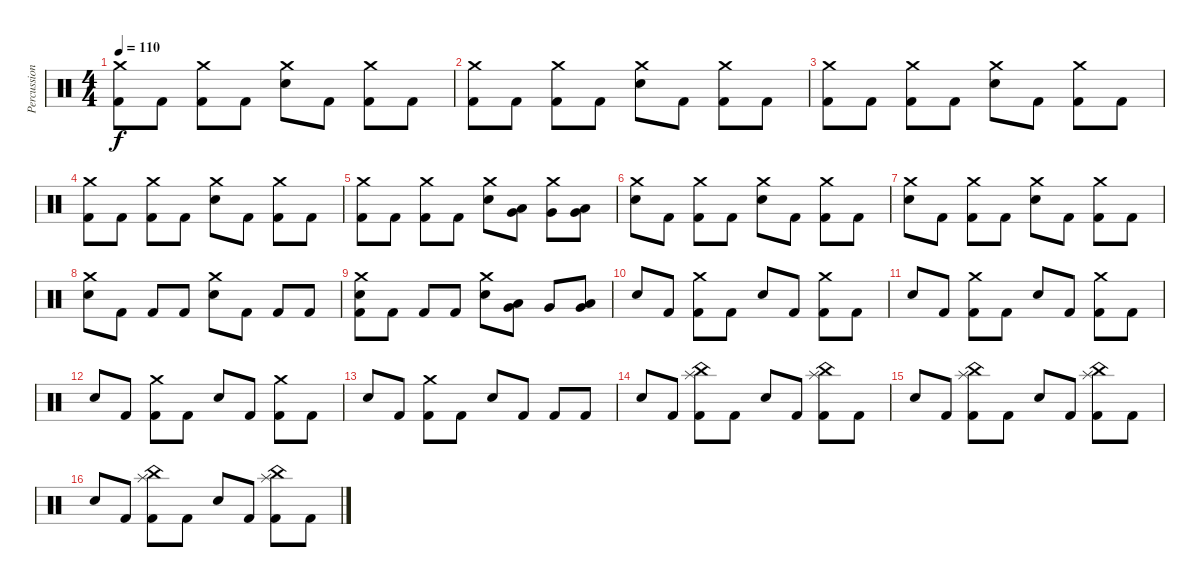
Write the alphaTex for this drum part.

\track ("Percussions" "Percussion") {instrument percussion}
\staff {score}
\articulation defaults
\ts (4 4)
\tempo 110
\clef neutral
\ks c
("Crash medium (hit)" "Kick (hit) 2").8{dy f} "Kick (hit) 2".8 ("Crash medium (hit)" "Kick (hit) 2").8 "Kick (hit) 2".8 ("Crash medium (hit)" "Snare (hit) 2").8 "Kick (hit) 2".8 ("Crash medium (hit)" "Kick (hit) 2").8 "Kick (hit) 2".8 |
("Crash medium (hit)" "Kick (hit) 2").8 "Kick (hit) 2".8 ("Crash medium (hit)" "Kick (hit) 2").8 "Kick (hit) 2".8 ("Crash medium (hit)" "Snare (hit) 2").8 "Kick (hit) 2".8 ("Crash medium (hit)" "Kick (hit) 2").8 "Kick (hit) 2".8 |
("Crash medium (hit)" "Kick (hit) 2").8 "Kick (hit) 2".8 ("Crash medium (hit)" "Kick (hit) 2").8 "Kick (hit) 2".8 ("Crash medium (hit)" "Snare (hit) 2").8 "Kick (hit) 2".8 ("Crash medium (hit)" "Kick (hit) 2").8 "Kick (hit) 2".8 |
("Crash medium (hit)" "Kick (hit) 2").8 "Kick (hit) 2".8 ("Crash medium (hit)" "Kick (hit) 2").8 "Kick (hit) 2".8 ("Crash medium (hit)" "Snare (hit) 2").8 "Kick (hit) 2".8 ("Crash medium (hit)" "Kick (hit) 2").8 "Kick (hit) 2".8 |
("Crash medium (hit)" "Kick (hit) 2").8 "Kick (hit) 2".8 ("Crash medium (hit)" "Kick (hit) 2").8 "Kick (hit) 2".8 ("Crash medium (hit)" "Snare (hit) 2").8 ("Low Tom (hit)" "Very Low Tom (hit)").8 ("Crash medium (hit)" "Very Low Tom (hit)").8 ("Very Low Tom (hit)" "Low Floor Tom (hit)").8 |
("Crash medium (hit)" "Snare (hit) 2").8 "Kick (hit) 2".8 ("Crash medium (hit)" "Kick (hit) 2").8 "Kick (hit) 2".8 ("Crash medium (hit)" "Snare (hit) 2").8 "Kick (hit) 2".8 ("Crash medium (hit)" "Kick (hit) 2").8 "Kick (hit) 2".8 |
("Crash medium (hit)" "Snare (hit) 2").8 "Kick (hit) 2".8 ("Crash medium (hit)" "Kick (hit) 2").8 "Kick (hit) 2".8 ("Crash medium (hit)" "Snare (hit) 2").8 "Kick (hit) 2".8 ("Crash medium (hit)" "Kick (hit) 2").8 "Kick (hit) 2".8 |
("Crash medium (hit)" "Snare (hit) 2").8 "Kick (hit) 2".8 "Kick (hit) 2".8 "Kick (hit) 2".8 ("Crash medium (hit)" "Snare (hit) 2").8 "Kick (hit) 2".8 "Kick (hit) 2".8 "Kick (hit) 2".8 |
("Crash medium (hit)" "Snare (hit) 2" "Kick (hit) 2").8 "Kick (hit) 2".8 "Kick (hit) 2".8 "Kick (hit) 2".8 ("Crash medium (hit)" "Snare (hit) 2").8 ("Low Tom (hit)" "Very Low Tom (hit)").8 "Very Low Tom (hit)".8 ("Very Low Tom (hit)" "Low Floor Tom (hit)").8 |
"Snare (hit) 2".8 "Kick (hit) 2".8 ("Crash medium (hit)" "Kick (hit) 2").8 "Kick (hit) 2".8 "Snare (hit) 2".8 "Kick (hit) 2".8 ("Crash medium (hit)" "Kick (hit) 2").8 "Kick (hit) 2".8 |
"Snare (hit) 2".8 "Kick (hit) 2".8 ("Crash medium (hit)" "Kick (hit) 2").8 "Kick (hit) 2".8 "Snare (hit) 2".8 "Kick (hit) 2".8 ("Crash medium (hit)" "Kick (hit) 2").8 "Kick (hit) 2".8 |
"Snare (hit) 2".8 "Kick (hit) 2".8 ("Crash medium (hit)" "Kick (hit) 2").8 "Kick (hit) 2".8 "Snare (hit) 2".8 "Kick (hit) 2".8 ("Crash medium (hit)" "Kick (hit) 2").8 "Kick (hit) 2".8 |
"Snare (hit) 2".8 "Kick (hit) 2".8 ("Crash medium (hit)" "Kick (hit) 2").8 "Kick (hit) 2".8 "Snare (hit) 2".8 "Kick (hit) 2".8 "Kick (hit) 2".8 "Kick (hit) 2".8 |
"Snare (hit) 2".8 "Kick (hit) 2".8 ("Splash (hit)" "China (hit)" "Kick (hit) 2").8 "Kick (hit) 2".8 "Snare (hit) 2".8 "Kick (hit) 2".8 ("Splash (hit)" "China (hit)" "Kick (hit) 2").8 "Kick (hit) 2".8 |
"Snare (hit) 2".8 "Kick (hit) 2".8 ("Splash (hit)" "China (hit)" "Kick (hit) 2").8 "Kick (hit) 2".8 "Snare (hit) 2".8 "Kick (hit) 2".8 ("Splash (hit)" "China (hit)" "Kick (hit) 2").8 "Kick (hit) 2".8 |
"Snare (hit) 2".8 "Kick (hit) 2".8 ("Splash (hit)" "China (hit)" "Kick (hit) 2").8 "Kick (hit) 2".8 "Snare (hit) 2".8 "Kick (hit) 2".8 ("Splash (hit)" "China (hit)" "Kick (hit) 2").8 "Kick (hit) 2".8
